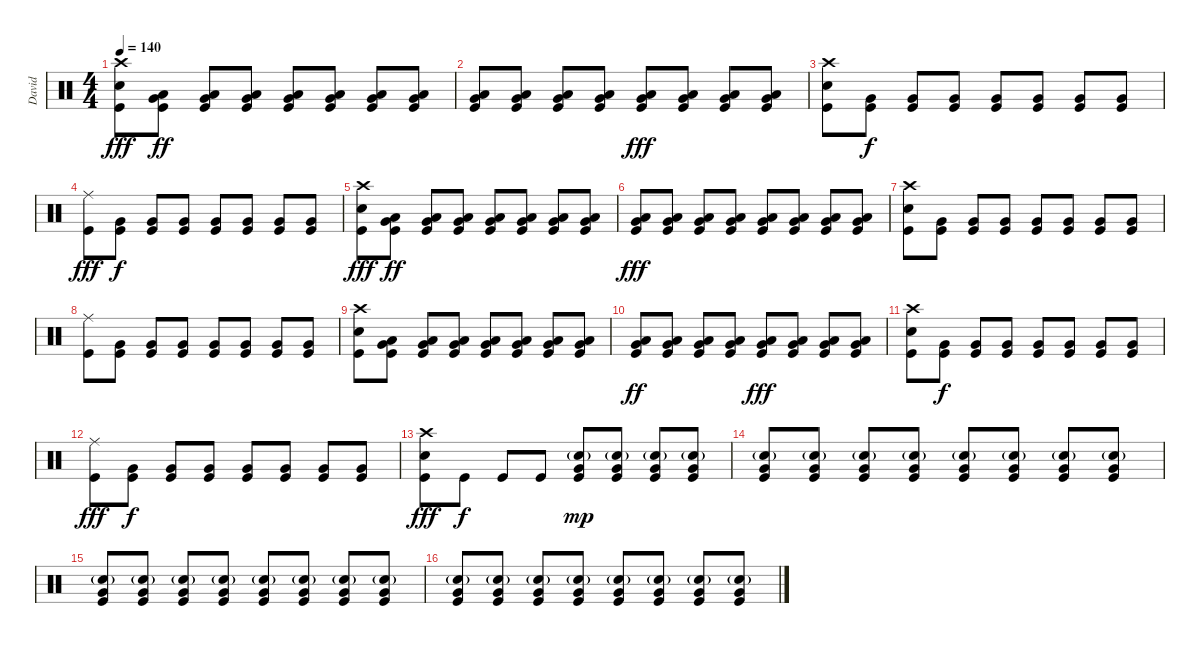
\track ("David " "David ") {instrument percussion}
\staff {score}
\articulation defaults
\ts (4 4)
\tempo 140
\clef neutral
\ks c
("Crash high (hit)" "Electric Snare (hit)" "Kick (hit)").8{dy fff} ("Low Tom (hit)" "Very Low Tom (hit)" "Kick (hit)").8{dy ff} ("Low Tom (hit)" "Very Low Tom (hit)" "Kick (hit)").8 ("Low Tom (hit)" "Very Low Tom (hit)" "Kick (hit)").8 ("Low Tom (hit)" "Very Low Tom (hit)" "Kick (hit)").8 ("Low Tom (hit)" "Very Low Tom (hit)" "Kick (hit)").8 ("Low Tom (hit)" "Very Low Tom (hit)" "Kick (hit)").8 ("Low Tom (hit)" "Very Low Tom (hit)" "Kick (hit)").8 |
("Low Tom (hit)" "Very Low Tom (hit)" "Kick (hit)").8 ("Low Tom (hit)" "Very Low Tom (hit)" "Kick (hit)").8 ("Low Tom (hit)" "Very Low Tom (hit)" "Kick (hit)").8 ("Low Tom (hit)" "Very Low Tom (hit)" "Kick (hit)").8 ("Low Tom (hit)" "Very Low Tom (hit)" "Kick (hit)").8{dy fff} ("Low Tom (hit)" "Very Low Tom (hit)" "Kick (hit)").8 ("Low Tom (hit)" "Very Low Tom (hit)" "Kick (hit)").8 ("Low Tom (hit)" "Very Low Tom (hit)" "Kick (hit)").8 |
("Crash high (hit)" "Electric Snare (hit)" "Kick (hit)").8 ("Very Low Tom (hit)" "Kick (hit)").8{dy f} ("Very Low Tom (hit)" "Kick (hit)").8 ("Very Low Tom (hit)" "Kick (hit)").8 ("Very Low Tom (hit)" "Kick (hit)").8 ("Very Low Tom (hit)" "Kick (hit)").8 ("Very Low Tom (hit)" "Kick (hit)").8 ("Very Low Tom (hit)" "Kick (hit)").8 |
("Ride (middle)" "Kick (hit)").8{dy fff} ("Very Low Tom (hit)" "Kick (hit)").8{dy f} ("Very Low Tom (hit)" "Kick (hit)").8 ("Very Low Tom (hit)" "Kick (hit)").8 ("Very Low Tom (hit)" "Kick (hit)").8 ("Very Low Tom (hit)" "Kick (hit)").8 ("Very Low Tom (hit)" "Kick (hit)").8 ("Very Low Tom (hit)" "Kick (hit)").8 |
("Crash high (hit)" "Electric Snare (hit)" "Kick (hit)").8{dy fff} ("Low Tom (hit)" "Very Low Tom (hit)" "Kick (hit)").8{dy ff} ("Low Tom (hit)" "Very Low Tom (hit)" "Kick (hit)").8 ("Low Tom (hit)" "Very Low Tom (hit)" "Kick (hit)").8 ("Low Tom (hit)" "Very Low Tom (hit)" "Kick (hit)").8 ("Low Tom (hit)" "Very Low Tom (hit)" "Kick (hit)").8 ("Low Tom (hit)" "Very Low Tom (hit)" "Kick (hit)").8 ("Low Tom (hit)" "Very Low Tom (hit)" "Kick (hit)").8 |
("Low Tom (hit)" "Very Low Tom (hit)" "Kick (hit)").8{dy fff} ("Low Tom (hit)" "Very Low Tom (hit)" "Kick (hit)").8 ("Low Tom (hit)" "Very Low Tom (hit)" "Kick (hit)").8 ("Low Tom (hit)" "Very Low Tom (hit)" "Kick (hit)").8 ("Low Tom (hit)" "Very Low Tom (hit)" "Kick (hit)").8 ("Low Tom (hit)" "Very Low Tom (hit)" "Kick (hit)").8 ("Low Tom (hit)" "Very Low Tom (hit)" "Kick (hit)").8 ("Low Tom (hit)" "Very Low Tom (hit)" "Kick (hit)").8 |
("Crash high (hit)" "Electric Snare (hit)" "Kick (hit)").8 ("Very Low Tom (hit)" "Kick (hit)").8 ("Very Low Tom (hit)" "Kick (hit)").8 ("Very Low Tom (hit)" "Kick (hit)").8 ("Very Low Tom (hit)" "Kick (hit)").8 ("Very Low Tom (hit)" "Kick (hit)").8 ("Very Low Tom (hit)" "Kick (hit)").8 ("Very Low Tom (hit)" "Kick (hit)").8 |
("Ride (middle)" "Kick (hit)").8 ("Very Low Tom (hit)" "Kick (hit)").8 ("Very Low Tom (hit)" "Kick (hit)").8 ("Very Low Tom (hit)" "Kick (hit)").8 ("Very Low Tom (hit)" "Kick (hit)").8 ("Very Low Tom (hit)" "Kick (hit)").8 ("Very Low Tom (hit)" "Kick (hit)").8 ("Very Low Tom (hit)" "Kick (hit)").8 |
("Crash high (hit)" "Electric Snare (hit)" "Kick (hit)").8 ("Low Tom (hit)" "Very Low Tom (hit)" "Kick (hit)").8 ("Low Tom (hit)" "Very Low Tom (hit)" "Kick (hit)").8 ("Low Tom (hit)" "Very Low Tom (hit)" "Kick (hit)").8 ("Low Tom (hit)" "Very Low Tom (hit)" "Kick (hit)").8 ("Low Tom (hit)" "Very Low Tom (hit)" "Kick (hit)").8 ("Low Tom (hit)" "Very Low Tom (hit)" "Kick (hit)").8 ("Low Tom (hit)" "Very Low Tom (hit)" "Kick (hit)").8 |
("Low Tom (hit)" "Very Low Tom (hit)" "Kick (hit)").8{dy ff} ("Low Tom (hit)" "Very Low Tom (hit)" "Kick (hit)").8 ("Low Tom (hit)" "Very Low Tom (hit)" "Kick (hit)").8 ("Low Tom (hit)" "Very Low Tom (hit)" "Kick (hit)").8 ("Low Tom (hit)" "Very Low Tom (hit)" "Kick (hit)").8{dy fff} ("Low Tom (hit)" "Very Low Tom (hit)" "Kick (hit)").8 ("Low Tom (hit)" "Very Low Tom (hit)" "Kick (hit)").8 ("Low Tom (hit)" "Very Low Tom (hit)" "Kick (hit)").8 |
("Crash high (hit)" "Electric Snare (hit)" "Kick (hit)").8 ("Very Low Tom (hit)" "Kick (hit)").8{dy f} ("Very Low Tom (hit)" "Kick (hit)").8 ("Very Low Tom (hit)" "Kick (hit)").8 ("Very Low Tom (hit)" "Kick (hit)").8 ("Very Low Tom (hit)" "Kick (hit)").8 ("Very Low Tom (hit)" "Kick (hit)").8 ("Very Low Tom (hit)" "Kick (hit)").8 |
("Ride (middle)" "Kick (hit)").8{dy fff} ("Very Low Tom (hit)" "Kick (hit)").8{dy f} ("Very Low Tom (hit)" "Kick (hit)").8 ("Very Low Tom (hit)" "Kick (hit)").8 ("Very Low Tom (hit)" "Kick (hit)").8 ("Very Low Tom (hit)" "Kick (hit)").8 ("Very Low Tom (hit)" "Kick (hit)").8 ("Very Low Tom (hit)" "Kick (hit)").8 |
("Crash high (hit)" "Electric Snare (hit)" "Kick (hit)").8{dy fff} "Kick (hit)".8{dy f} "Kick (hit)".8 "Kick (hit)".8 ("Electric Snare (hit)"{g} "Very Low Tom (hit)" "Kick (hit)").8{dy mp} ("Electric Snare (hit)"{g} "Very Low Tom (hit)" "Kick (hit)").8 ("Electric Snare (hit)"{g} "Very Low Tom (hit)" "Kick (hit)").8 ("Electric Snare (hit)"{g} "Very Low Tom (hit)" "Kick (hit)").8 |
("Electric Snare (hit)"{g} "Very Low Tom (hit)" "Kick (hit)").8 ("Electric Snare (hit)"{g} "Very Low Tom (hit)" "Kick (hit)").8 ("Electric Snare (hit)"{g} "Very Low Tom (hit)" "Kick (hit)").8 ("Electric Snare (hit)"{g} "Very Low Tom (hit)" "Kick (hit)").8 ("Electric Snare (hit)"{g} "Very Low Tom (hit)" "Kick (hit)").8 ("Electric Snare (hit)"{g} "Very Low Tom (hit)" "Kick (hit)").8 ("Electric Snare (hit)"{g} "Very Low Tom (hit)" "Kick (hit)").8 ("Electric Snare (hit)"{g} "Very Low Tom (hit)" "Kick (hit)").8 |
("Electric Snare (hit)"{g} "Very Low Tom (hit)" "Kick (hit)").8 ("Electric Snare (hit)"{g} "Very Low Tom (hit)" "Kick (hit)").8 ("Electric Snare (hit)"{g} "Very Low Tom (hit)" "Kick (hit)").8 ("Electric Snare (hit)"{g} "Very Low Tom (hit)" "Kick (hit)").8 ("Electric Snare (hit)"{g} "Very Low Tom (hit)" "Kick (hit)").8 ("Electric Snare (hit)"{g} "Very Low Tom (hit)" "Kick (hit)").8 ("Electric Snare (hit)"{g} "Very Low Tom (hit)" "Kick (hit)").8 ("Electric Snare (hit)"{g} "Very Low Tom (hit)" "Kick (hit)").8 |
("Electric Snare (hit)"{g} "Very Low Tom (hit)" "Kick (hit)").8 ("Electric Snare (hit)"{g} "Very Low Tom (hit)" "Kick (hit)").8 ("Electric Snare (hit)"{g} "Very Low Tom (hit)" "Kick (hit)").8 ("Electric Snare (hit)"{g} "Very Low Tom (hit)" "Kick (hit)").8 ("Electric Snare (hit)"{g} "Very Low Tom (hit)" "Kick (hit)").8 ("Electric Snare (hit)"{g} "Very Low Tom (hit)" "Kick (hit)").8 ("Electric Snare (hit)"{g} "Very Low Tom (hit)" "Kick (hit)").8 ("Electric Snare (hit)"{g} "Very Low Tom (hit)" "Kick (hit)").8
